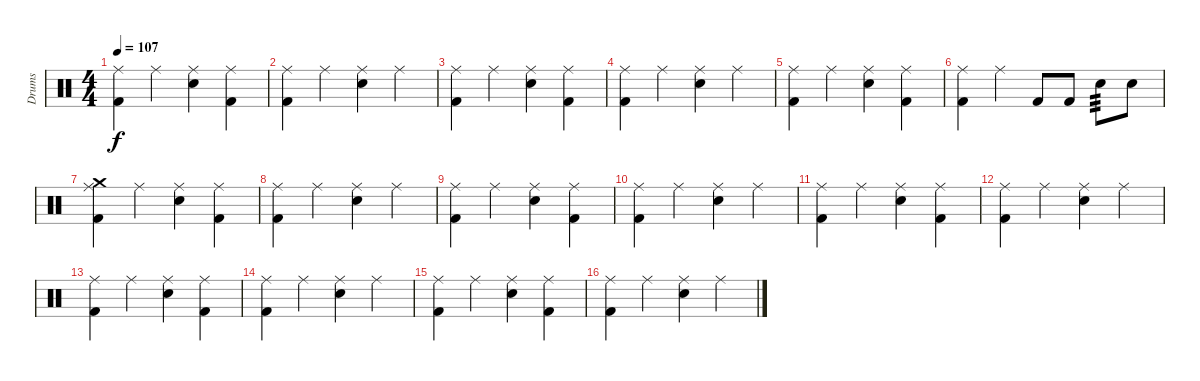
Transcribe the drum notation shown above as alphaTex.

\track ("Drums" "Drums") {instrument percussion}
\staff {score}
\articulation defaults
\ts (4 4)
\tempo 107
\clef neutral
\ks c
("Ride (middle)" "Kick (hit) 2").4{dy f} "Ride (middle)".4 ("Ride (middle)" "Electric Snare (hit)").4 ("Ride (middle)" "Kick (hit) 2").4 |
("Ride (middle)" "Kick (hit) 2").4 "Ride (middle)".4 ("Ride (middle)" "Electric Snare (hit)").4 "Ride (middle)".4 |
("Ride (middle)" "Kick (hit) 2").4 "Ride (middle)".4 ("Ride (middle)" "Electric Snare (hit)").4 ("Ride (middle)" "Kick (hit) 2").4 |
("Ride (middle)" "Kick (hit) 2").4 "Ride (middle)".4 ("Ride (middle)" "Electric Snare (hit)").4 "Ride (middle)".4 |
("Ride (middle)" "Kick (hit) 2").4 "Ride (middle)".4 ("Ride (middle)" "Electric Snare (hit)").4 ("Ride (middle)" "Kick (hit) 2").4 |
("Ride (middle)" "Kick (hit) 2").4 "Ride (middle)".4 "Kick (hit) 2".8 "Kick (hit) 2".8 "Electric Snare (hit)".8{tp 3} "Electric Snare (hit)".8 |
("Ride (middle)" "Crash medium (hit)" "Kick (hit) 2").4 "Ride (middle)".4 ("Ride (middle)" "Electric Snare (hit)").4 ("Ride (middle)" "Kick (hit) 2").4 |
("Ride (middle)" "Kick (hit) 2").4 "Ride (middle)".4 ("Ride (middle)" "Electric Snare (hit)").4 "Ride (middle)".4 |
("Ride (middle)" "Kick (hit) 2").4 "Ride (middle)".4 ("Ride (middle)" "Electric Snare (hit)").4 ("Ride (middle)" "Kick (hit) 2").4 |
("Ride (middle)" "Kick (hit) 2").4 "Ride (middle)".4 ("Ride (middle)" "Electric Snare (hit)").4 "Ride (middle)".4 |
("Ride (middle)" "Kick (hit) 2").4 "Ride (middle)".4 ("Ride (middle)" "Electric Snare (hit)").4 ("Ride (middle)" "Kick (hit) 2").4 |
("Ride (middle)" "Kick (hit) 2").4 "Ride (middle)".4 ("Ride (middle)" "Electric Snare (hit)").4 "Ride (middle)".4 |
("Ride (middle)" "Kick (hit) 2").4 "Ride (middle)".4 ("Ride (middle)" "Electric Snare (hit)").4 ("Ride (middle)" "Kick (hit) 2").4 |
("Ride (middle)" "Kick (hit) 2").4 "Ride (middle)".4 ("Ride (middle)" "Electric Snare (hit)").4 "Ride (middle)".4 |
("Ride (middle)" "Kick (hit) 2").4 "Ride (middle)".4 ("Ride (middle)" "Electric Snare (hit)").4 ("Ride (middle)" "Kick (hit) 2").4 |
("Ride (middle)" "Kick (hit) 2").4 "Ride (middle)".4 ("Ride (middle)" "Electric Snare (hit)").4 "Ride (middle)".4
